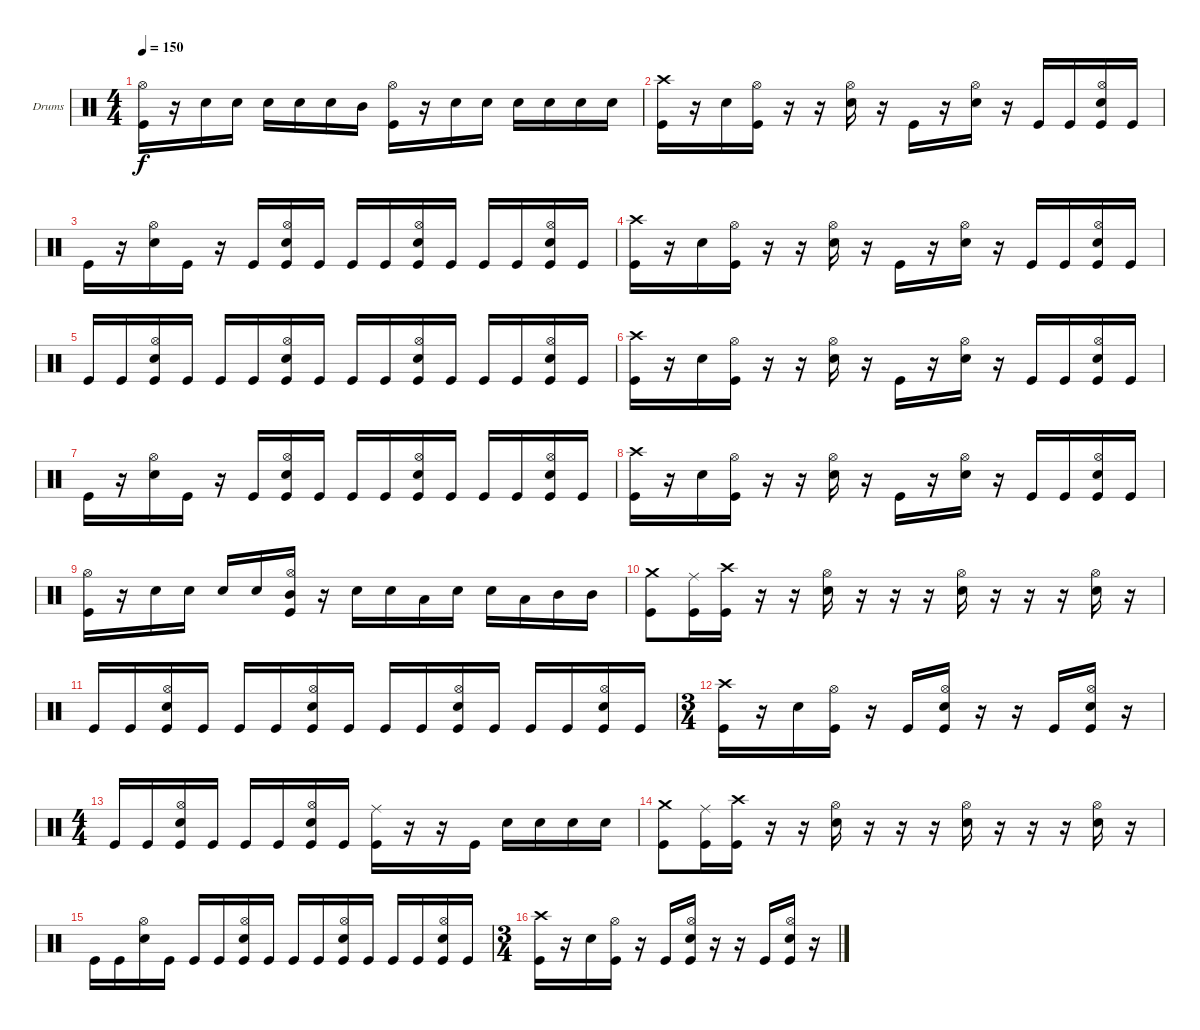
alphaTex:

\defaultSystemsLayout 4
\bracketExtendMode groupsimilarinstruments
\firstSystemTrackNameOrientation horizontal
\otherSystemsTrackNameOrientation horizontal
\track ("Moe Carlson" "Drums") {instrument percussion}
\staff {score}
\articulation defaults
\ts (4 4)
\tempo 150
\clef neutral
\ks c
("Kick (hit)" "Hi-Hat (open)").16{dy f} r.16 "Snare (hit) 2".16 "Snare (hit) 2".16 "Snare (hit) 2".16 "Snare (hit) 2".16 "Snare (hit) 2".16 "Mid Tom (hit)".16 ("Hi-Hat (open)" "Kick (hit)").16 r.16 "Snare (hit) 2".16 "Snare (hit) 2".16 "Snare (hit) 2".16 "Snare (hit) 2".16 "Snare (hit) 2".16 "Snare (hit) 2".16 |
("Crash high (hit)" "Kick (hit)").16 r.16 "Snare (hit) 2".16 ("Hi-Hat (open)" "Kick (hit)").16 r.16 r.16 ("Snare (hit) 2" "Hi-Hat (open)").16 r.16 "Kick (hit)".16 r.16 ("Snare (hit) 2" "Hi-Hat (open)").16 r.16 "Kick (hit)".16 "Kick (hit)".16 ("Kick (hit)" "Snare (hit) 2" "Hi-Hat (open)").16 "Kick (hit)".16 |
"Kick (hit)".16 r.16 ("Snare (hit) 2" "Hi-Hat (open)").16 "Kick (hit)".16 r.16 "Kick (hit)".16 ("Kick (hit)" "Snare (hit) 2" "Hi-Hat (open)").16 "Kick (hit)".16 "Kick (hit)".16 "Kick (hit)".16 ("Kick (hit)" "Snare (hit) 2" "Hi-Hat (open)").16 "Kick (hit)".16 "Kick (hit)".16 "Kick (hit)".16 ("Kick (hit)" "Snare (hit) 2" "Hi-Hat (open)").16 "Kick (hit)".16 |
("Crash high (hit)" "Kick (hit)").16 r.16 "Snare (hit) 2".16 ("Kick (hit)" "Hi-Hat (open)").16 r.16 r.16 ("Hi-Hat (open)" "Snare (hit) 2").16 r.16 "Kick (hit)".16 r.16 ("Hi-Hat (open)" "Snare (hit) 2").16 r.16 "Kick (hit)".16 "Kick (hit)".16 ("Kick (hit)" "Snare (hit) 2" "Hi-Hat (open)").16 "Kick (hit)".16 |
"Kick (hit)".16 "Kick (hit)".16 ("Kick (hit)" "Snare (hit) 2" "Hi-Hat (open)").16 "Kick (hit)".16 "Kick (hit)".16 "Kick (hit)".16 ("Kick (hit)" "Snare (hit) 2" "Hi-Hat (open)").16 "Kick (hit)".16 "Kick (hit)".16 "Kick (hit)".16 ("Kick (hit)" "Snare (hit) 2" "Hi-Hat (open)").16 "Kick (hit)".16 "Kick (hit)".16 "Kick (hit)".16 ("Kick (hit)" "Snare (hit) 2" "Hi-Hat (open)").16 "Kick (hit)".16 |
("Crash high (hit)" "Kick (hit)").16 r.16 "Snare (hit) 2".16 ("Kick (hit)" "Hi-Hat (open)").16 r.16 r.16 ("Hi-Hat (open)" "Snare (hit) 2").16 r.16 "Kick (hit)".16 r.16 ("Hi-Hat (open)" "Snare (hit) 2").16 r.16 "Kick (hit)".16 "Kick (hit)".16 ("Kick (hit)" "Snare (hit) 2" "Hi-Hat (open)").16 "Kick (hit)".16 |
"Kick (hit)".16 r.16 ("Snare (hit) 2" "Hi-Hat (open)").16 "Kick (hit)".16 r.16 "Kick (hit)".16 ("Kick (hit)" "Snare (hit) 2" "Hi-Hat (open)").16 "Kick (hit)".16 "Kick (hit)".16 "Kick (hit)".16 ("Kick (hit)" "Snare (hit) 2" "Hi-Hat (open)").16 "Kick (hit)".16 "Kick (hit)".16 "Kick (hit)".16 ("Kick (hit)" "Snare (hit) 2" "Hi-Hat (open)").16 "Kick (hit)".16 |
("Crash high (hit)" "Kick (hit)").16 r.16 "Snare (hit) 2".16 ("Kick (hit)" "Hi-Hat (open)").16 r.16 r.16 ("Hi-Hat (open)" "Snare (hit) 2").16 r.16 "Kick (hit)".16 r.16 ("Hi-Hat (open)" "Snare (hit) 2").16 r.16 "Kick (hit)".16 "Kick (hit)".16 ("Kick (hit)" "Snare (hit) 2" "Hi-Hat (open)").16 "Kick (hit)".16 |
("Kick (hit)" "Hi-Hat (open)").16 r.16 "Snare (hit) 2".16 "Snare (hit) 2".16 "Snare (hit) 2".16 "Snare (hit) 2".16 ("Hi-Hat (open)" "Kick (hit)" "Mid Tom (hit)").16 r.16 "Snare (hit) 2".16 "Snare (hit) 2".16 "Low Tom (hit)".16 "Snare (hit) 2".16 "Snare (hit) 2".16 "Low Tom (hit)".16 "Mid Tom (hit)".16 "Mid Tom (hit)".16 |
("Crash medium (hit)" "Kick (hit)").8 ("Kick (hit)" "Ride (middle)").16 ("Crash high (hit)" "Kick (hit)").16 r.16 r.16 ("Snare (hit) 2" "Hi-Hat (open)").16 r.16 r.16 r.16 ("Hi-Hat (open)" "Snare (hit) 2").16 r.16 r.16 r.16 ("Snare (hit) 2" "Hi-Hat (open)").16 r.16 |
"Kick (hit)".16 "Kick (hit)".16 ("Kick (hit)" "Snare (hit) 2" "Hi-Hat (open)").16 "Kick (hit)".16 "Kick (hit)".16 "Kick (hit)".16 ("Kick (hit)" "Snare (hit) 2" "Hi-Hat (open)").16 "Kick (hit)".16 "Kick (hit)".16 "Kick (hit)".16 ("Kick (hit)" "Snare (hit) 2" "Hi-Hat (open)").16 "Kick (hit)".16 "Kick (hit)".16 "Kick (hit)".16 ("Kick (hit)" "Snare (hit) 2" "Hi-Hat (open)").16 "Kick (hit)".16 |
\ts (3 4)
("Kick (hit)" "Crash high (hit)").16 r.16 "Snare (hit) 2".16 ("Hi-Hat (open)" "Kick (hit)").16 r.16 "Kick (hit)".16 ("Kick (hit)" "Snare (hit) 2" "Hi-Hat (open)").16 r.16 r.16 "Kick (hit)".16 ("Kick (hit)" "Snare (hit) 2" "Hi-Hat (open)").16 r.16 |
\ts (4 4)
"Kick (hit)".16 "Kick (hit)".16 ("Kick (hit)" "Snare (hit) 2" "Hi-Hat (open)").16 "Kick (hit)".16 "Kick (hit)".16 "Kick (hit)".16 ("Kick (hit)" "Hi-Hat (open)" "Snare (hit) 2").16 "Kick (hit)".16 ("Kick (hit)" "Ride (middle)").16 r.16 r.16 "Kick (hit)".16 "Snare (hit) 2".16 "Snare (hit) 2".16 "Snare (hit) 2".16 "Snare (hit) 2".16 |
("Crash medium (hit)" "Kick (hit)").8 ("Kick (hit)" "Ride (middle)").16 ("Crash high (hit)" "Kick (hit)").16 r.16 r.16 ("Snare (hit) 2" "Hi-Hat (open)").16 r.16 r.16 r.16 ("Hi-Hat (open)" "Snare (hit) 2").16 r.16 r.16 r.16 ("Snare (hit) 2" "Hi-Hat (open)").16 r.16 |
"Kick (hit)".16 "Kick (hit)".16 ("Snare (hit) 2" "Hi-Hat (open)").16 "Kick (hit)".16 "Kick (hit)".16 "Kick (hit)".16 ("Kick (hit)" "Snare (hit) 2" "Hi-Hat (open)").16 "Kick (hit)".16 "Kick (hit)".16 "Kick (hit)".16 ("Kick (hit)" "Hi-Hat (open)" "Snare (hit) 2").16 "Kick (hit)".16 "Kick (hit)".16 "Kick (hit)".16 ("Kick (hit)" "Snare (hit) 2" "Hi-Hat (open)").16 "Kick (hit)".16 |
\ts (3 4)
("Kick (hit)" "Crash high (hit)").16 r.16 "Snare (hit) 2".16 ("Hi-Hat (open)" "Kick (hit)").16 r.16 "Kick (hit)".16 ("Kick (hit)" "Snare (hit) 2" "Hi-Hat (open)").16 r.16 r.16 "Kick (hit)".16 ("Kick (hit)" "Snare (hit) 2" "Hi-Hat (open)").16 r.16
